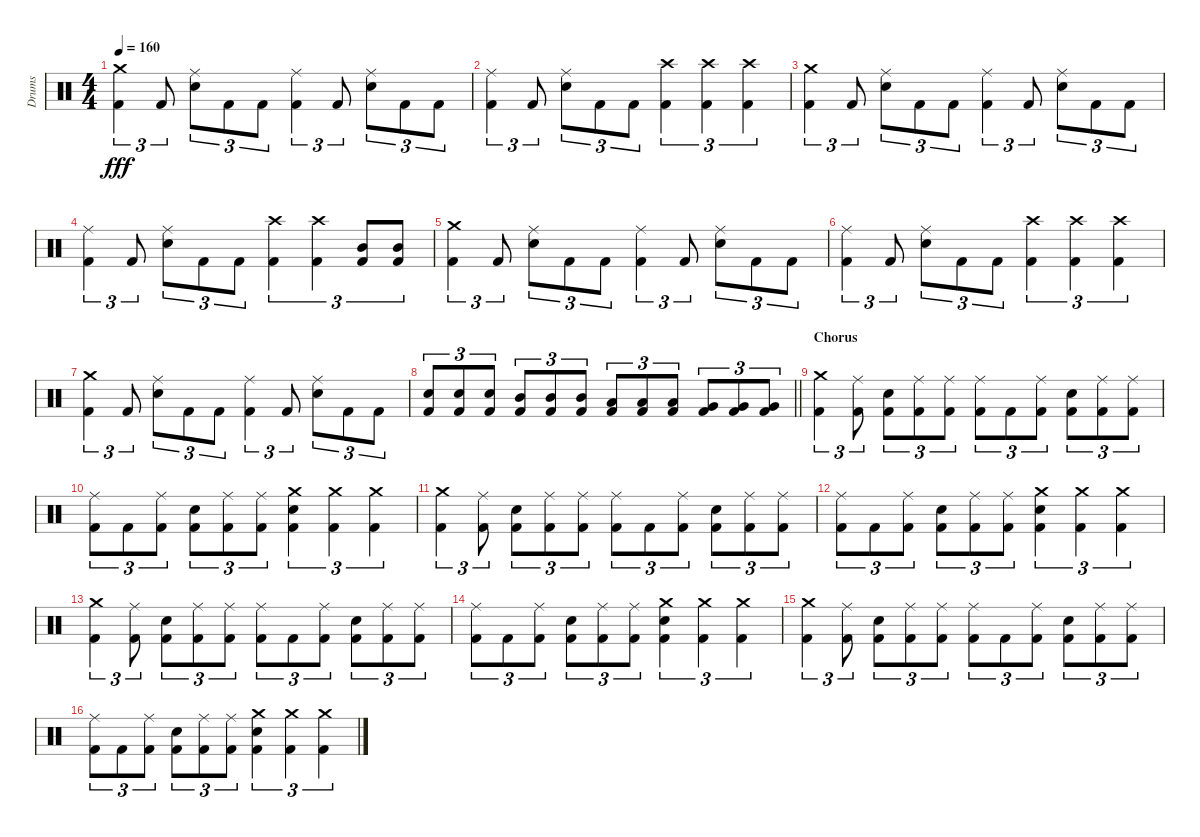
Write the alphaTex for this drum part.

\track ("Drums" "Drums") {instrument percussion}
\staff {score}
\articulation defaults
\ts (4 4)
\tempo 160
\clef neutral
\ks c
("Crash medium (hit)" "Kick (hit) 2").4{tu (3 2) dy fff} "Kick (hit) 2".8{tu (3 2)} ("Ride (middle)" "Snare (hit) 2").8{tu (3 2)} "Kick (hit) 2".8{tu (3 2)} "Kick (hit) 2".8{tu (3 2)} ("Ride (middle)" "Kick (hit) 2").4{tu (3 2)} "Kick (hit) 2".8{tu (3 2)} ("Ride (middle)" "Snare (hit) 2").8{tu (3 2)} "Kick (hit) 2".8{tu (3 2)} "Kick (hit) 2".8{tu (3 2)} |
("Ride (middle)" "Kick (hit) 2").4{tu (3 2)} "Kick (hit) 2".8{tu (3 2)} ("Ride (middle)" "Snare (hit) 2").8{tu (3 2)} "Kick (hit) 2".8{tu (3 2)} "Kick (hit) 2".8{tu (3 2)} ("Crash high (hit)" "Kick (hit) 2").4{tu (3 2)} ("Crash high (hit)" "Kick (hit) 2").4{tu (3 2)} ("Crash high (hit)" "Kick (hit) 2").4{tu (3 2)} |
("Crash medium (hit)" "Kick (hit) 2").4{tu (3 2)} "Kick (hit) 2".8{tu (3 2)} ("Ride (middle)" "Snare (hit) 2").8{tu (3 2)} "Kick (hit) 2".8{tu (3 2)} "Kick (hit) 2".8{tu (3 2)} ("Ride (middle)" "Kick (hit) 2").4{tu (3 2)} "Kick (hit) 2".8{tu (3 2)} ("Ride (middle)" "Snare (hit) 2").8{tu (3 2)} "Kick (hit) 2".8{tu (3 2)} "Kick (hit) 2".8{tu (3 2)} |
("Ride (middle)" "Kick (hit) 2").4{tu (3 2)} "Kick (hit) 2".8{tu (3 2)} ("Ride (middle)" "Snare (hit) 2").8{tu (3 2)} "Kick (hit) 2".8{tu (3 2)} "Kick (hit) 2".8{tu (3 2)} ("Crash high (hit)" "Kick (hit) 2").4{tu (3 2)} ("Crash high (hit)" "Kick (hit) 2").4{tu (3 2)} ("Mid Tom (hit)" "Kick (hit) 2").8{tu (3 2)} ("Mid Tom (hit)" "Kick (hit) 2").8{tu (3 2)} |
("Crash medium (hit)" "Kick (hit) 2").4{tu (3 2)} "Kick (hit) 2".8{tu (3 2)} ("Ride (middle)" "Snare (hit) 2").8{tu (3 2)} "Kick (hit) 2".8{tu (3 2)} "Kick (hit) 2".8{tu (3 2)} ("Ride (middle)" "Kick (hit) 2").4{tu (3 2)} "Kick (hit) 2".8{tu (3 2)} ("Ride (middle)" "Snare (hit) 2").8{tu (3 2)} "Kick (hit) 2".8{tu (3 2)} "Kick (hit) 2".8{tu (3 2)} |
("Ride (middle)" "Kick (hit) 2").4{tu (3 2)} "Kick (hit) 2".8{tu (3 2)} ("Ride (middle)" "Snare (hit) 2").8{tu (3 2)} "Kick (hit) 2".8{tu (3 2)} "Kick (hit) 2".8{tu (3 2)} ("Crash high (hit)" "Kick (hit) 2").4{tu (3 2)} ("Crash high (hit)" "Kick (hit) 2").4{tu (3 2)} ("Crash high (hit)" "Kick (hit) 2").4{tu (3 2)} |
("Crash medium (hit)" "Kick (hit) 2").4{tu (3 2)} "Kick (hit) 2".8{tu (3 2)} ("Ride (middle)" "Snare (hit) 2").8{tu (3 2)} "Kick (hit) 2".8{tu (3 2)} "Kick (hit) 2".8{tu (3 2)} ("Ride (middle)" "Kick (hit) 2").4{tu (3 2)} "Kick (hit) 2".8{tu (3 2)} ("Ride (middle)" "Snare (hit) 2").8{tu (3 2)} "Kick (hit) 2".8{tu (3 2)} "Kick (hit) 2".8{tu (3 2)} |
\barLineRight lightlight
("Snare (hit) 2" "Kick (hit) 2").8{tu (3 2)} ("Snare (hit) 2" "Kick (hit) 2").8{tu (3 2)} ("Snare (hit) 2" "Kick (hit) 2").8{tu (3 2)} ("Mid Tom (hit)" "Kick (hit) 2").8{tu (3 2)} ("Mid Tom (hit)" "Kick (hit) 2").8{tu (3 2)} ("Mid Tom (hit)" "Kick (hit) 2").8{tu (3 2)} ("Low Tom (hit)" "Kick (hit) 2").8{tu (3 2)} ("Low Tom (hit)" "Kick (hit) 2").8{tu (3 2)} ("Low Tom (hit)" "Kick (hit) 2").8{tu (3 2)} ("Very Low Tom (hit)" "Kick (hit) 2").8{tu (3 2)} ("Very Low Tom (hit)" "Kick (hit) 2").8{tu (3 2)} ("Very Low Tom (hit)" "Kick (hit) 2").8{tu (3 2)} |
\section ("" "Chorus")
("Crash medium (hit)" "Kick (hit) 2").4{tu (3 2)} ("Ride (middle)" "Kick (hit) 2").8{tu (3 2)} ("Snare (hit) 2" "Kick (hit) 2").8{tu (3 2)} ("Ride (middle)" "Kick (hit) 2").8{tu (3 2)} ("Ride (middle)" "Kick (hit) 2").8{tu (3 2)} ("Ride (middle)" "Kick (hit) 2").8{tu (3 2)} "Kick (hit) 2".8{tu (3 2)} ("Ride (middle)" "Kick (hit) 2").8{tu (3 2)} ("Snare (hit) 2" "Kick (hit) 2").8{tu (3 2)} ("Ride (middle)" "Kick (hit) 2").8{tu (3 2)} ("Ride (middle)" "Kick (hit) 2").8{tu (3 2)} |
("Ride (middle)" "Kick (hit) 2").8{tu (3 2)} "Kick (hit) 2".8{tu (3 2)} ("Ride (middle)" "Kick (hit) 2").8{tu (3 2)} ("Snare (hit) 2" "Kick (hit) 2").8{tu (3 2)} ("Ride (middle)" "Kick (hit) 2").8{tu (3 2)} ("Ride (middle)" "Kick (hit) 2").8{tu (3 2)} ("Crash medium (hit)" "Snare (hit) 2" "Kick (hit) 2").4{tu (3 2)} ("Crash medium (hit)" "Kick (hit) 2").4{tu (3 2)} ("Crash medium (hit)" "Kick (hit) 2").4{tu (3 2)} |
("Crash medium (hit)" "Kick (hit) 2").4{tu (3 2)} ("Ride (middle)" "Kick (hit) 2").8{tu (3 2)} ("Snare (hit) 2" "Kick (hit) 2").8{tu (3 2)} ("Ride (middle)" "Kick (hit) 2").8{tu (3 2)} ("Ride (middle)" "Kick (hit) 2").8{tu (3 2)} ("Ride (middle)" "Kick (hit) 2").8{tu (3 2)} "Kick (hit) 2".8{tu (3 2)} ("Ride (middle)" "Kick (hit) 2").8{tu (3 2)} ("Snare (hit) 2" "Kick (hit) 2").8{tu (3 2)} ("Ride (middle)" "Kick (hit) 2").8{tu (3 2)} ("Ride (middle)" "Kick (hit) 2").8{tu (3 2)} |
("Ride (middle)" "Kick (hit) 2").8{tu (3 2)} "Kick (hit) 2".8{tu (3 2)} ("Ride (middle)" "Kick (hit) 2").8{tu (3 2)} ("Snare (hit) 2" "Kick (hit) 2").8{tu (3 2)} ("Ride (middle)" "Kick (hit) 2").8{tu (3 2)} ("Ride (middle)" "Kick (hit) 2").8{tu (3 2)} ("Crash medium (hit)" "Snare (hit) 2" "Kick (hit) 2").4{tu (3 2)} ("Crash medium (hit)" "Kick (hit) 2").4{tu (3 2)} ("Crash medium (hit)" "Kick (hit) 2").4{tu (3 2)} |
("Crash medium (hit)" "Kick (hit) 2").4{tu (3 2)} ("Ride (middle)" "Kick (hit) 2").8{tu (3 2)} ("Snare (hit) 2" "Kick (hit) 2").8{tu (3 2)} ("Ride (middle)" "Kick (hit) 2").8{tu (3 2)} ("Ride (middle)" "Kick (hit) 2").8{tu (3 2)} ("Ride (middle)" "Kick (hit) 2").8{tu (3 2)} "Kick (hit) 2".8{tu (3 2)} ("Ride (middle)" "Kick (hit) 2").8{tu (3 2)} ("Snare (hit) 2" "Kick (hit) 2").8{tu (3 2)} ("Ride (middle)" "Kick (hit) 2").8{tu (3 2)} ("Ride (middle)" "Kick (hit) 2").8{tu (3 2)} |
("Ride (middle)" "Kick (hit) 2").8{tu (3 2)} "Kick (hit) 2".8{tu (3 2)} ("Ride (middle)" "Kick (hit) 2").8{tu (3 2)} ("Snare (hit) 2" "Kick (hit) 2").8{tu (3 2)} ("Ride (middle)" "Kick (hit) 2").8{tu (3 2)} ("Ride (middle)" "Kick (hit) 2").8{tu (3 2)} ("Crash medium (hit)" "Snare (hit) 2" "Kick (hit) 2").4{tu (3 2)} ("Crash medium (hit)" "Kick (hit) 2").4{tu (3 2)} ("Crash medium (hit)" "Kick (hit) 2").4{tu (3 2)} |
("Crash medium (hit)" "Kick (hit) 2").4{tu (3 2)} ("Ride (middle)" "Kick (hit) 2").8{tu (3 2)} ("Snare (hit) 2" "Kick (hit) 2").8{tu (3 2)} ("Ride (middle)" "Kick (hit) 2").8{tu (3 2)} ("Ride (middle)" "Kick (hit) 2").8{tu (3 2)} ("Ride (middle)" "Kick (hit) 2").8{tu (3 2)} "Kick (hit) 2".8{tu (3 2)} ("Ride (middle)" "Kick (hit) 2").8{tu (3 2)} ("Snare (hit) 2" "Kick (hit) 2").8{tu (3 2)} ("Ride (middle)" "Kick (hit) 2").8{tu (3 2)} ("Ride (middle)" "Kick (hit) 2").8{tu (3 2)} |
("Ride (middle)" "Kick (hit) 2").8{tu (3 2)} "Kick (hit) 2".8{tu (3 2)} ("Ride (middle)" "Kick (hit) 2").8{tu (3 2)} ("Snare (hit) 2" "Kick (hit) 2").8{tu (3 2)} ("Ride (middle)" "Kick (hit) 2").8{tu (3 2)} ("Ride (middle)" "Kick (hit) 2").8{tu (3 2)} ("Crash medium (hit)" "Snare (hit) 2" "Kick (hit) 2").4{tu (3 2)} ("Crash medium (hit)" "Kick (hit) 2").4{tu (3 2)} ("Crash medium (hit)" "Kick (hit) 2").4{tu (3 2)}
